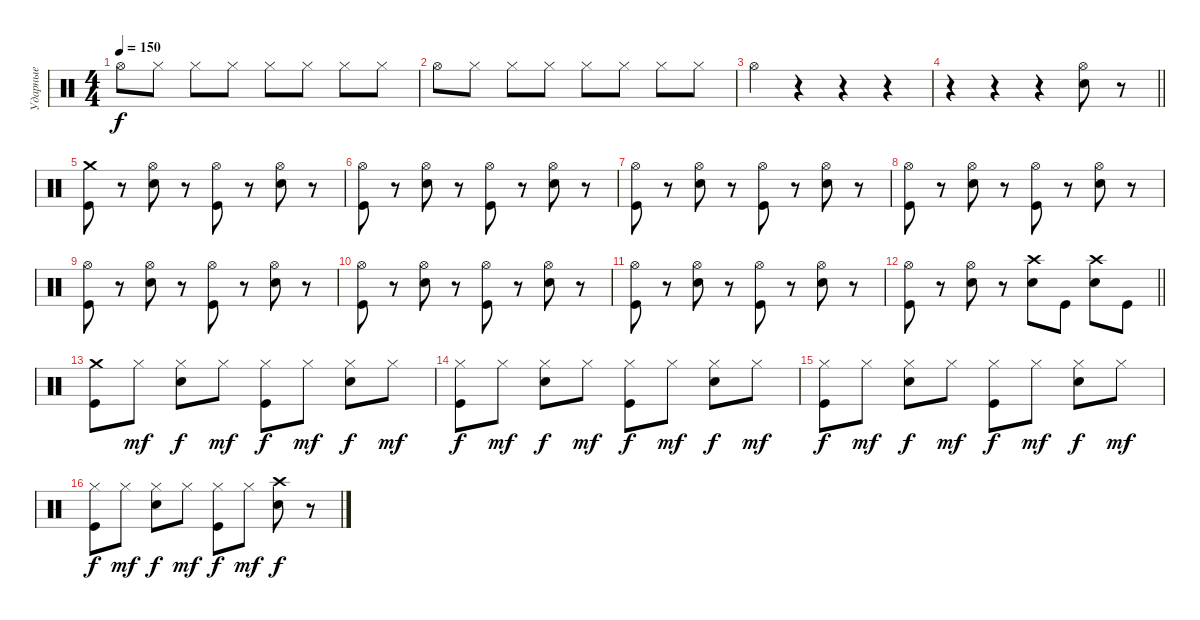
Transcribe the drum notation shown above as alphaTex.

\track ("Ударные" "Ударные") {instrument percussion}
\staff {score}
\articulation defaults
\ts (4 4)
\tempo 150
\clef neutral
\ks c "Hi-Hat (open)".8{dy f} "Hi-Hat (closed)".8 "Hi-Hat (closed)".8 "Hi-Hat (closed)".8 "Hi-Hat (closed)".8 "Hi-Hat (closed)".8 "Hi-Hat (closed)".8 "Hi-Hat (closed)".8
|
"Hi-Hat (open)".8 "Hi-Hat (closed)".8 "Hi-Hat (closed)".8 "Hi-Hat (closed)".8 "Hi-Hat (closed)".8 "Hi-Hat (closed)".8 "Hi-Hat (closed)".8 "Hi-Hat (closed)".8 |
"Hi-Hat (open)".4 r.4 r.4 r.4 |
\barLineRight lightlight
r.4 r.4 r.4 ("Hi-Hat (open)" "Electric Snare (hit)").8 r.8 |
\section ("" " ")
("Crash medium (hit)" "Kick (hit)").8 r.8 ("Hi-Hat (open)" "Electric Snare (hit)").8 r.8 ("Hi-Hat (open)" "Kick (hit)").8 r.8 ("Hi-Hat (open)" "Electric Snare (hit)").8 r.8 |
("Hi-Hat (open)" "Kick (hit)").8 r.8 ("Hi-Hat (open)" "Electric Snare (hit)").8 r.8 ("Hi-Hat (open)" "Kick (hit)").8 r.8 ("Hi-Hat (open)" "Electric Snare (hit)").8 r.8 |
("Hi-Hat (open)" "Kick (hit)").8 r.8 ("Hi-Hat (open)" "Electric Snare (hit)").8 r.8 ("Hi-Hat (open)" "Kick (hit)").8 r.8 ("Hi-Hat (open)" "Electric Snare (hit)").8 r.8 |
("Hi-Hat (open)" "Kick (hit)").8 r.8 ("Hi-Hat (open)" "Electric Snare (hit)").8 r.8 ("Hi-Hat (open)" "Kick (hit)").8 r.8 ("Hi-Hat (open)" "Electric Snare (hit)").8 r.8 |
("Hi-Hat (open)" "Kick (hit)").8 r.8 ("Hi-Hat (open)" "Electric Snare (hit)").8 r.8 ("Hi-Hat (open)" "Kick (hit)").8 r.8 ("Hi-Hat (open)" "Electric Snare (hit)").8 r.8 |
("Hi-Hat (open)" "Kick (hit)").8 r.8 ("Hi-Hat (open)" "Electric Snare (hit)").8 r.8 ("Hi-Hat (open)" "Kick (hit)").8 r.8 ("Hi-Hat (open)" "Electric Snare (hit)").8 r.8 |
("Hi-Hat (open)" "Kick (hit)").8 r.8 ("Hi-Hat (open)" "Electric Snare (hit)").8 r.8 ("Hi-Hat (open)" "Kick (hit)").8 r.8 ("Hi-Hat (open)" "Electric Snare (hit)").8 r.8 |
\barLineRight lightlight
("Hi-Hat (open)" "Kick (hit)").8 r.8 ("Hi-Hat (open)" "Electric Snare (hit)").8 r.8 ("Crash high (hit)" "Electric Snare (hit)").8 "Kick (hit)".8 ("Crash high (hit)" "Electric Snare (hit)").8 "Kick (hit)".8 |
\section ("" " ")
("Crash medium (hit)" "Kick (hit)").8 "Hi-Hat (closed)".8{dy mf} ("Hi-Hat (closed)" "Electric Snare (hit)").8{dy f} "Hi-Hat (closed)".8{dy mf} ("Hi-Hat (closed)" "Kick (hit)").8{dy f} "Hi-Hat (closed)".8{dy mf} ("Hi-Hat (closed)" "Electric Snare (hit)").8{dy f} "Hi-Hat (closed)".8{dy mf} |
("Hi-Hat (closed)" "Kick (hit)").8{dy f} "Hi-Hat (closed)".8{dy mf} ("Hi-Hat (closed)" "Electric Snare (hit)").8{dy f} "Hi-Hat (closed)".8{dy mf} ("Hi-Hat (closed)" "Kick (hit)").8{dy f} "Hi-Hat (closed)".8{dy mf} ("Hi-Hat (closed)" "Electric Snare (hit)").8{dy f} "Hi-Hat (closed)".8{dy mf} |
("Hi-Hat (closed)" "Kick (hit)").8{dy f} "Hi-Hat (closed)".8{dy mf} ("Hi-Hat (closed)" "Electric Snare (hit)").8{dy f} "Hi-Hat (closed)".8{dy mf} ("Hi-Hat (closed)" "Kick (hit)").8{dy f} "Hi-Hat (closed)".8{dy mf} ("Hi-Hat (closed)" "Electric Snare (hit)").8{dy f} "Hi-Hat (closed)".8{dy mf} |
("Hi-Hat (closed)" "Kick (hit)").8{dy f} "Hi-Hat (closed)".8{dy mf} ("Hi-Hat (closed)" "Electric Snare (hit)").8{dy f} "Hi-Hat (closed)".8{dy mf} ("Hi-Hat (closed)" "Kick (hit)").8{dy f} "Hi-Hat (closed)".8{dy mf} ("Crash high (hit)" "Electric Snare (hit)").8{dy f} r.8
